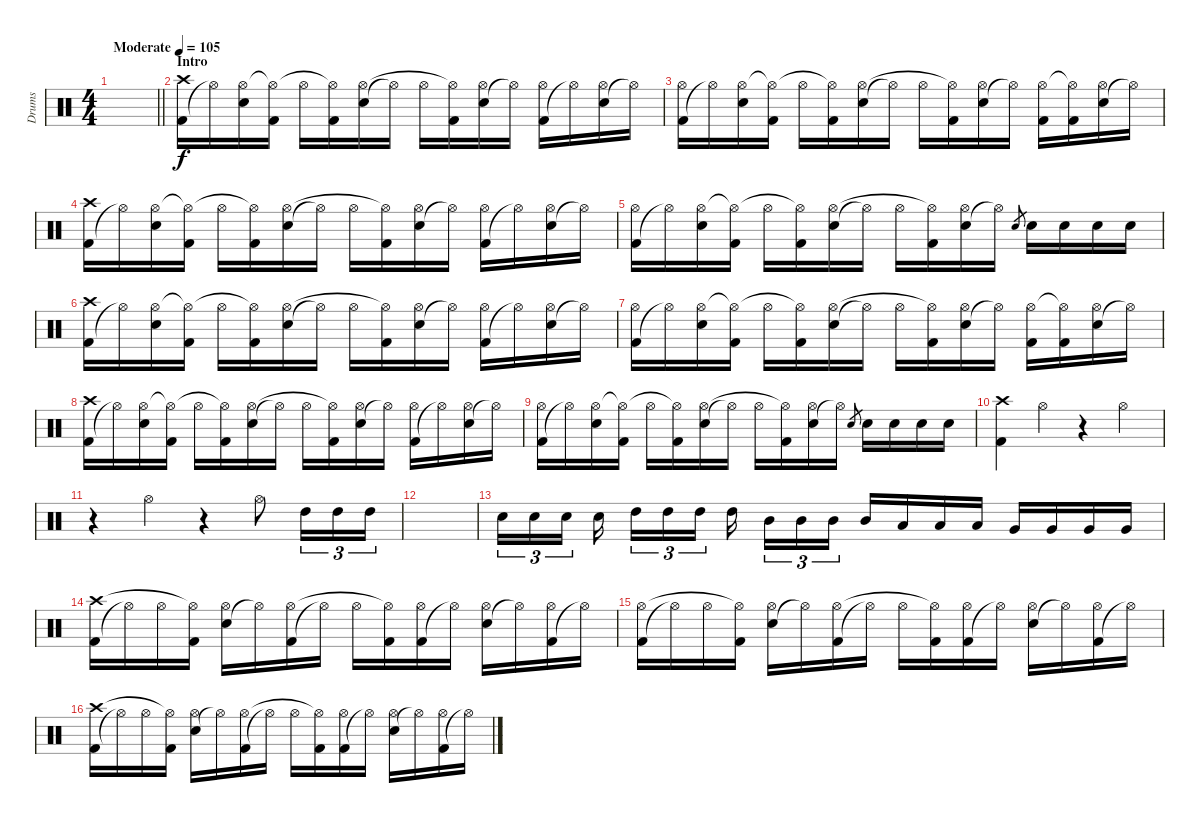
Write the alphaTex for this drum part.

\track ("Drums" "Drums") {instrument percussion}
\staff {score}
\articulation defaults
\ts (4 4)
\tempo (105 "Moderate")
\clef neutral
\barLineRight lightlight
\ks c
|
\section ("" "Intro")
("Kick (hit) 2" "Crash high (hit)").16 "Hi-Hat (open)"{t}.16 ("Snare (hit) 2" "Hi-Hat (open)").16 ("Kick (hit) 2" "Hi-Hat (open)"{t}).16 "Hi-Hat (open)".16 ("Kick (hit) 2" "Hi-Hat (open)"{t}).16 ("Snare (hit) 2" "Hi-Hat (open)").16 "Hi-Hat (open)"{t}.16 "Hi-Hat (open)".16 ("Kick (hit) 2" "Hi-Hat (open)"{t}).16 ("Snare (hit) 2" "Hi-Hat (open)").16 "Hi-Hat (open)"{t}.16 ("Kick (hit) 2" "Hi-Hat (open)").16 "Hi-Hat (open)"{t}.16 ("Snare (hit) 2" "Hi-Hat (open)").16 "Hi-Hat (open)"{t}.16 |
("Kick (hit) 2" "Hi-Hat (open)").16 "Hi-Hat (open)"{t}.16 ("Snare (hit) 2" "Hi-Hat (open)").16 ("Kick (hit) 2" "Hi-Hat (open)"{t}).16 "Hi-Hat (open)".16 ("Kick (hit) 2" "Hi-Hat (open)"{t}).16 ("Snare (hit) 2" "Hi-Hat (open)").16 "Hi-Hat (open)"{t}.16 "Hi-Hat (open)".16 ("Kick (hit) 2" "Hi-Hat (open)"{t}).16 ("Snare (hit) 2" "Hi-Hat (open)").16 "Hi-Hat (open)"{t}.16 ("Kick (hit) 2" "Hi-Hat (open)").16 ("Kick (hit) 2" "Hi-Hat (open)"{t}).16 ("Snare (hit) 2" "Hi-Hat (open)").16 "Hi-Hat (open)"{t}.16 |
("Kick (hit) 2" "Crash high (hit)").16 "Hi-Hat (open)"{t}.16 ("Snare (hit) 2" "Hi-Hat (open)").16 ("Kick (hit) 2" "Hi-Hat (open)"{t}).16 "Hi-Hat (open)".16 ("Kick (hit) 2" "Hi-Hat (open)"{t}).16 ("Snare (hit) 2" "Hi-Hat (open)").16 "Hi-Hat (open)"{t}.16 "Hi-Hat (open)".16 ("Kick (hit) 2" "Hi-Hat (open)"{t}).16 ("Snare (hit) 2" "Hi-Hat (open)").16 "Hi-Hat (open)"{t}.16 ("Kick (hit) 2" "Hi-Hat (open)").16 "Hi-Hat (open)"{t}.16 ("Snare (hit) 2" "Hi-Hat (open)").16 "Hi-Hat (open)"{t}.16 |
("Kick (hit) 2" "Hi-Hat (open)").16 "Hi-Hat (open)"{t}.16 ("Snare (hit) 2" "Hi-Hat (open)").16 ("Kick (hit) 2" "Hi-Hat (open)"{t}).16 "Hi-Hat (open)".16 ("Kick (hit) 2" "Hi-Hat (open)"{t}).16 ("Snare (hit) 2" "Hi-Hat (open)").16 "Hi-Hat (open)"{t}.16 "Hi-Hat (open)".16 ("Kick (hit) 2" "Hi-Hat (open)"{t}).16 ("Snare (hit) 2" "Hi-Hat (open)").16 "Hi-Hat (open)"{t}.16 "Snare (hit) 2".8{gr} "Snare (hit) 2".16 "Snare (hit) 2".16 "Snare (hit) 2".16 "Snare (hit) 2".16 |
("Kick (hit) 2" "Crash high (hit)").16 "Hi-Hat (open)"{t}.16 ("Snare (hit) 2" "Hi-Hat (open)").16 ("Kick (hit) 2" "Hi-Hat (open)"{t}).16 "Hi-Hat (open)".16 ("Kick (hit) 2" "Hi-Hat (open)"{t}).16 ("Snare (hit) 2" "Hi-Hat (open)").16 "Hi-Hat (open)"{t}.16 "Hi-Hat (open)".16 ("Kick (hit) 2" "Hi-Hat (open)"{t}).16 ("Snare (hit) 2" "Hi-Hat (open)").16 "Hi-Hat (open)"{t}.16 ("Kick (hit) 2" "Hi-Hat (open)").16 "Hi-Hat (open)"{t}.16 ("Snare (hit) 2" "Hi-Hat (open)").16 "Hi-Hat (open)"{t}.16 |
("Kick (hit) 2" "Hi-Hat (open)").16 "Hi-Hat (open)"{t}.16 ("Snare (hit) 2" "Hi-Hat (open)").16 ("Kick (hit) 2" "Hi-Hat (open)"{t}).16 "Hi-Hat (open)".16 ("Kick (hit) 2" "Hi-Hat (open)"{t}).16 ("Snare (hit) 2" "Hi-Hat (open)").16 "Hi-Hat (open)"{t}.16 "Hi-Hat (open)".16 ("Kick (hit) 2" "Hi-Hat (open)"{t}).16 ("Snare (hit) 2" "Hi-Hat (open)").16 "Hi-Hat (open)"{t}.16 ("Kick (hit) 2" "Hi-Hat (open)").16 ("Kick (hit) 2" "Hi-Hat (open)"{t}).16 ("Snare (hit) 2" "Hi-Hat (open)").16 "Hi-Hat (open)"{t}.16 |
("Kick (hit) 2" "Crash high (hit)").16 "Hi-Hat (open)"{t}.16 ("Snare (hit) 2" "Hi-Hat (open)").16 ("Kick (hit) 2" "Hi-Hat (open)"{t}).16 "Hi-Hat (open)".16 ("Kick (hit) 2" "Hi-Hat (open)"{t}).16 ("Snare (hit) 2" "Hi-Hat (open)").16 "Hi-Hat (open)"{t}.16 "Hi-Hat (open)".16 ("Kick (hit) 2" "Hi-Hat (open)"{t}).16 ("Snare (hit) 2" "Hi-Hat (open)").16 "Hi-Hat (open)"{t}.16 ("Kick (hit) 2" "Hi-Hat (open)").16 "Hi-Hat (open)"{t}.16 ("Snare (hit) 2" "Hi-Hat (open)").16 "Hi-Hat (open)"{t}.16 |
("Kick (hit) 2" "Hi-Hat (open)").16 "Hi-Hat (open)"{t}.16 ("Snare (hit) 2" "Hi-Hat (open)").16 ("Kick (hit) 2" "Hi-Hat (open)"{t}).16 "Hi-Hat (open)".16 ("Kick (hit) 2" "Hi-Hat (open)"{t}).16 ("Snare (hit) 2" "Hi-Hat (open)").16 "Hi-Hat (open)"{t}.16 "Hi-Hat (open)".16 ("Kick (hit) 2" "Hi-Hat (open)"{t}).16 ("Snare (hit) 2" "Hi-Hat (open)").16 "Hi-Hat (open)"{t}.16 "Snare (hit) 2".8{gr} "Snare (hit) 2".16 "Snare (hit) 2".16 "Snare (hit) 2".16 "Snare (hit) 2".16 |
("Crash high (hit)" "Kick (hit) 2").4 "Hi-Hat (open)".4 r.4 "Hi-Hat (open)".4 |
r.4 "Hi-Hat (open)".4 r.4 "Hi-Hat (open)".8 "High Tom (hit)".16{tu (3 2)} "High Tom (hit)".16{tu (3 2)} "High Tom (hit)".16{tu (3 2)} |
|
"Snare (hit) 2".16{tu (3 2)} "Snare (hit) 2".16{tu (3 2)} "Snare (hit) 2".16{tu (3 2) beam splitsecondary} "Snare (hit) 2".16{beam splitsecondary} "High Tom (hit)".16{tu (3 2)} "High Tom (hit)".16{tu (3 2)} "High Tom (hit)".16{tu (3 2) beam splitsecondary} "High Tom (hit)".16{beam splitsecondary} "Mid Tom (hit)".16{tu (3 2)} "Mid Tom (hit)".16{tu (3 2)} "Mid Tom (hit)".16{tu (3 2)} "Mid Tom (hit)".16 "Low Tom (hit)".16 "Low Tom (hit)".16 "Low Tom (hit)".16 "Very Low Tom (hit)".16 "Very Low Tom (hit)".16 "Very Low Tom (hit)".16 "Very Low Tom (hit)".16 |
("Kick (hit) 2" "Crash high (hit)").16 "Hi-Hat (open)"{t}.16 "Hi-Hat (open)".16 ("Kick (hit) 2" "Hi-Hat (open)"{t}).16 ("Snare (hit) 2" "Hi-Hat (open)").16 "Hi-Hat (open)"{t}.16 ("Kick (hit) 2" "Hi-Hat (open)").16 "Hi-Hat (open)"{t}.16 "Hi-Hat (open)".16 ("Kick (hit) 2" "Hi-Hat (open)"{t}).16 ("Kick (hit) 2" "Hi-Hat (open)").16 "Hi-Hat (open)"{t}.16 ("Snare (hit) 2" "Hi-Hat (open)").16 "Hi-Hat (open)"{t}.16 ("Kick (hit) 2" "Hi-Hat (open)").16 "Hi-Hat (open)"{t}.16 |
("Kick (hit) 2" "Hi-Hat (open)").16 "Hi-Hat (open)"{t}.16 "Hi-Hat (open)".16 ("Kick (hit) 2" "Hi-Hat (open)"{t}).16 ("Snare (hit) 2" "Hi-Hat (open)").16 "Hi-Hat (open)"{t}.16 ("Kick (hit) 2" "Hi-Hat (open)").16 "Hi-Hat (open)"{t}.16 "Hi-Hat (open)".16 ("Kick (hit) 2" "Hi-Hat (open)"{t}).16 ("Kick (hit) 2" "Hi-Hat (open)").16 "Hi-Hat (open)"{t}.16 ("Snare (hit) 2" "Hi-Hat (open)").16 "Hi-Hat (open)"{t}.16 ("Kick (hit) 2" "Hi-Hat (open)").16 "Hi-Hat (open)"{t}.16 |
("Kick (hit) 2" "Crash high (hit)").16 "Hi-Hat (open)"{t}.16 "Hi-Hat (open)".16 ("Kick (hit) 2" "Hi-Hat (open)"{t}).16 ("Snare (hit) 2" "Hi-Hat (open)").16 "Hi-Hat (open)"{t}.16 ("Kick (hit) 2" "Hi-Hat (open)").16 "Hi-Hat (open)"{t}.16 "Hi-Hat (open)".16 ("Kick (hit) 2" "Hi-Hat (open)"{t}).16 ("Kick (hit) 2" "Hi-Hat (open)").16 "Hi-Hat (open)"{t}.16 ("Snare (hit) 2" "Hi-Hat (open)").16 "Hi-Hat (open)"{t}.16 ("Kick (hit) 2" "Hi-Hat (open)").16 "Hi-Hat (open)"{t}.16
